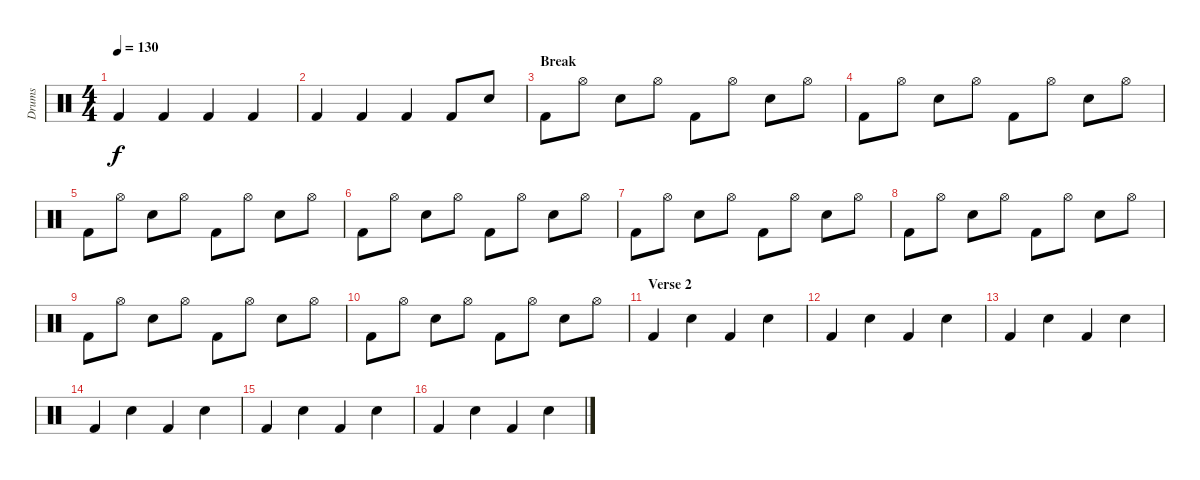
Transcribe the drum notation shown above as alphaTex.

\track ("Drums" "Drums") {instrument percussion}
\staff {score}
\articulation defaults
\ts (4 4)
\tempo 130
\clef neutral
\ks c "Kick (hit) 2".4{dy f} "Kick (hit) 2".4 "Kick (hit) 2".4 "Kick (hit) 2".4
|
"Kick (hit) 2".4 "Kick (hit) 2".4 "Kick (hit) 2".4 "Kick (hit) 2".8 "Snare (hit) 2".8 |
\section ("" "Break")
"Kick (hit) 2".8 "Hi-Hat (open)".8 "Snare (hit) 2".8 "Hi-Hat (open)".8 "Kick (hit) 2".8 "Hi-Hat (open)".8 "Snare (hit) 2".8 "Hi-Hat (open)".8 |
"Kick (hit) 2".8 "Hi-Hat (open)".8 "Snare (hit) 2".8 "Hi-Hat (open)".8 "Kick (hit) 2".8 "Hi-Hat (open)".8 "Snare (hit) 2".8 "Hi-Hat (open)".8 |
"Kick (hit) 2".8 "Hi-Hat (open)".8 "Snare (hit) 2".8 "Hi-Hat (open)".8 "Kick (hit) 2".8 "Hi-Hat (open)".8 "Snare (hit) 2".8 "Hi-Hat (open)".8 |
"Kick (hit) 2".8 "Hi-Hat (open)".8 "Snare (hit) 2".8 "Hi-Hat (open)".8 "Kick (hit) 2".8 "Hi-Hat (open)".8 "Snare (hit) 2".8 "Hi-Hat (open)".8 |
"Kick (hit) 2".8 "Hi-Hat (open)".8 "Snare (hit) 2".8 "Hi-Hat (open)".8 "Kick (hit) 2".8 "Hi-Hat (open)".8 "Snare (hit) 2".8 "Hi-Hat (open)".8 |
"Kick (hit) 2".8 "Hi-Hat (open)".8 "Snare (hit) 2".8 "Hi-Hat (open)".8 "Kick (hit) 2".8 "Hi-Hat (open)".8 "Snare (hit) 2".8 "Hi-Hat (open)".8 |
"Kick (hit) 2".8 "Hi-Hat (open)".8 "Snare (hit) 2".8 "Hi-Hat (open)".8 "Kick (hit) 2".8 "Hi-Hat (open)".8 "Snare (hit) 2".8 "Hi-Hat (open)".8 |
"Kick (hit) 2".8 "Hi-Hat (open)".8 "Snare (hit) 2".8 "Hi-Hat (open)".8 "Kick (hit) 2".8 "Hi-Hat (open)".8 "Snare (hit) 2".8 "Hi-Hat (open)".8 |
\section ("" "Verse 2")
"Kick (hit) 2".4 "Snare (hit) 2".4 "Kick (hit) 2".4 "Snare (hit) 2".4 |
"Kick (hit) 2".4 "Snare (hit) 2".4 "Kick (hit) 2".4 "Snare (hit) 2".4 |
"Kick (hit) 2".4 "Snare (hit) 2".4 "Kick (hit) 2".4 "Snare (hit) 2".4 |
"Kick (hit) 2".4 "Snare (hit) 2".4 "Kick (hit) 2".4 "Snare (hit) 2".4 |
"Kick (hit) 2".4 "Snare (hit) 2".4 "Kick (hit) 2".4 "Snare (hit) 2".4 |
"Kick (hit) 2".4 "Snare (hit) 2".4 "Kick (hit) 2".4 "Snare (hit) 2".4
